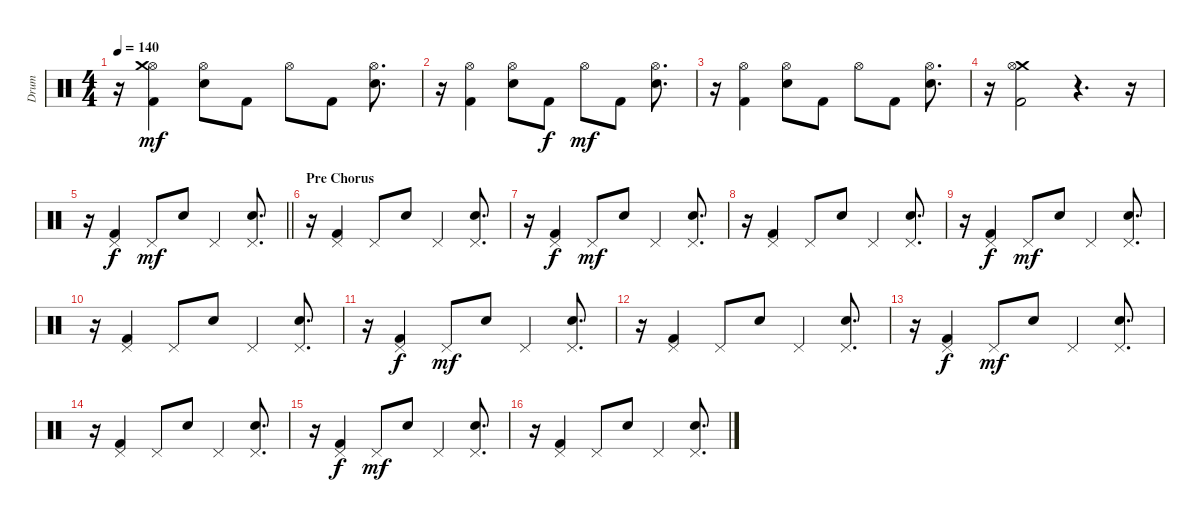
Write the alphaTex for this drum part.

\track ("Drum" "Drum") {instrument percussion}
\staff {score}
\articulation defaults
\ts (4 4)
\tempo 140
\clef neutral
\ks c
r.16{dy mf} ("Hi-Hat (open)" "Kick (hit) 2" "Crash medium (hit)").4 ("Hi-Hat (open)" "Electric Snare (hit)").8 "Kick (hit) 2".8 "Hi-Hat (open)".8 "Kick (hit) 2".8 ("Electric Snare (hit)" "Hi-Hat (open)").8{d} |
r.16 ("Kick (hit) 2" "Hi-Hat (open)").4 ("Hi-Hat (open)" "Electric Snare (hit)").8 "Kick (hit) 2".8{dy f} "Hi-Hat (open)".8{dy mf} "Kick (hit) 2".8 ("Hi-Hat (open)" "Electric Snare (hit)").8{d} |
r.16 ("Kick (hit) 2" "Hi-Hat (open)").4 ("Hi-Hat (open)" "Electric Snare (hit)").8 "Kick (hit) 2".8 "Hi-Hat (open)".8 "Kick (hit) 2".8 ("Electric Snare (hit)" "Hi-Hat (open)").8{d} |
r.16 ("Crash medium (hit)" "Hi-Hat (open)" "Kick (hit) 2").2 r.4{d} r.16 |
\barLineRight lightlight
r.16 ("Kick (hit) 2" "Pedal Hi-Hat (hit)").4{dy f} "Pedal Hi-Hat (hit)".8{dy mf} "Electric Snare (hit)".8 "Pedal Hi-Hat (hit)".4 ("Electric Snare (hit)" "Pedal Hi-Hat (hit)").8{d} |
\section ("" "Pre Chorus")
r.16 ("Pedal Hi-Hat (hit)" "Kick (hit) 2").4 "Pedal Hi-Hat (hit)".8 "Electric Snare (hit)".8 "Pedal Hi-Hat (hit)".4 ("Pedal Hi-Hat (hit)" "Electric Snare (hit)").8{d} |
r.16 ("Pedal Hi-Hat (hit)" "Kick (hit) 2").4{dy f} "Pedal Hi-Hat (hit)".8{dy mf} "Electric Snare (hit)".8 "Pedal Hi-Hat (hit)".4 ("Pedal Hi-Hat (hit)" "Electric Snare (hit)").8{d} |
r.16 ("Pedal Hi-Hat (hit)" "Kick (hit) 2").4 "Pedal Hi-Hat (hit)".8 "Electric Snare (hit)".8 "Pedal Hi-Hat (hit)".4 ("Pedal Hi-Hat (hit)" "Electric Snare (hit)").8{d} |
r.16 ("Kick (hit) 2" "Pedal Hi-Hat (hit)").4{dy f} "Pedal Hi-Hat (hit)".8{dy mf} "Electric Snare (hit)".8 "Pedal Hi-Hat (hit)".4 ("Electric Snare (hit)" "Pedal Hi-Hat (hit)").8{d} |
r.16 ("Kick (hit) 2" "Pedal Hi-Hat (hit)").4 "Pedal Hi-Hat (hit)".8 "Electric Snare (hit)".8 "Pedal Hi-Hat (hit)".4 ("Electric Snare (hit)" "Pedal Hi-Hat (hit)").8{d} |
r.16 ("Kick (hit) 2" "Pedal Hi-Hat (hit)").4{dy f} "Pedal Hi-Hat (hit)".8{dy mf} "Electric Snare (hit)".8 "Pedal Hi-Hat (hit)".4 ("Pedal Hi-Hat (hit)" "Electric Snare (hit)").8{d} |
r.16 ("Kick (hit) 2" "Pedal Hi-Hat (hit)").4 "Pedal Hi-Hat (hit)".8 "Electric Snare (hit)".8 "Pedal Hi-Hat (hit)".4 ("Electric Snare (hit)" "Pedal Hi-Hat (hit)").8{d} |
r.16 ("Kick (hit) 2" "Pedal Hi-Hat (hit)").4{dy f} "Pedal Hi-Hat (hit)".8{dy mf} "Electric Snare (hit)".8 "Pedal Hi-Hat (hit)".4 ("Pedal Hi-Hat (hit)" "Electric Snare (hit)").8{d} |
r.16 ("Pedal Hi-Hat (hit)" "Kick (hit) 2").4 "Pedal Hi-Hat (hit)".8 "Electric Snare (hit)".8 "Pedal Hi-Hat (hit)".4 ("Electric Snare (hit)" "Pedal Hi-Hat (hit)").8{d} |
r.16 ("Kick (hit) 2" "Pedal Hi-Hat (hit)").4{dy f} "Pedal Hi-Hat (hit)".8{dy mf} "Electric Snare (hit)".8 "Pedal Hi-Hat (hit)".4 ("Pedal Hi-Hat (hit)" "Electric Snare (hit)").8{d} |
r.16 ("Pedal Hi-Hat (hit)" "Kick (hit) 2").4 "Pedal Hi-Hat (hit)".8 "Electric Snare (hit)".8 "Pedal Hi-Hat (hit)".4 ("Electric Snare (hit)" "Pedal Hi-Hat (hit)").8{d}
